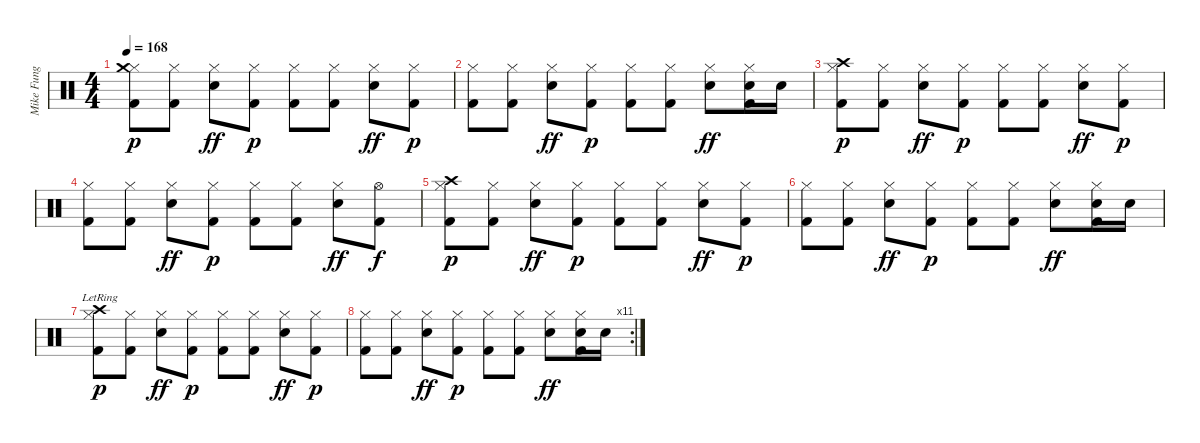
\track ("Mike Fung" "Mike Fung") {instrument percussion}
\staff {score}
\articulation defaults
\ts (4 4)
\tempo 168
\clef neutral
\ks c
("Hi-Hat (closed)" "Kick (hit) 2" "Crash medium (hit)").8{dy p} ("Hi-Hat (closed)" "Kick (hit) 2").8 ("Hi-Hat (closed)" "Snare (hit) 2").8{dy ff} ("Hi-Hat (closed)" "Kick (hit) 2").8{dy p} ("Hi-Hat (closed)" "Kick (hit) 2").8 ("Hi-Hat (closed)" "Kick (hit) 2").8 ("Hi-Hat (closed)" "Snare (hit) 2").8{dy ff} ("Hi-Hat (closed)" "Kick (hit) 2").8{dy p} |
("Hi-Hat (closed)" "Kick (hit) 2").8 ("Hi-Hat (closed)" "Kick (hit) 2").8 ("Hi-Hat (closed)" "Snare (hit) 2").8{dy ff} ("Hi-Hat (closed)" "Kick (hit) 2").8{dy p} ("Hi-Hat (closed)" "Kick (hit) 2").8 ("Hi-Hat (closed)" "Kick (hit) 2").8 ("Hi-Hat (closed)" "Snare (hit) 2").8{dy ff} ("Hi-Hat (closed)" "Snare (hit) 2" "Kick (hit) 2").16 "Snare (hit) 2".16 |
("Hi-Hat (closed)" "Kick (hit) 2" "Crash high (hit)").8{dy p} ("Hi-Hat (closed)" "Kick (hit) 2").8 ("Hi-Hat (closed)" "Snare (hit) 2").8{dy ff} ("Hi-Hat (closed)" "Kick (hit) 2").8{dy p} ("Hi-Hat (closed)" "Kick (hit) 2").8 ("Hi-Hat (closed)" "Kick (hit) 2").8 ("Hi-Hat (closed)" "Snare (hit) 2").8{dy ff} ("Hi-Hat (closed)" "Kick (hit) 2").8{dy p} |
("Hi-Hat (closed)" "Kick (hit) 2").8 ("Hi-Hat (closed)" "Kick (hit) 2").8 ("Hi-Hat (closed)" "Snare (hit) 2").8{dy ff} ("Hi-Hat (closed)" "Kick (hit) 2").8{dy p} ("Hi-Hat (closed)" "Kick (hit) 2").8 ("Hi-Hat (closed)" "Kick (hit) 2").8 ("Hi-Hat (closed)" "Snare (hit) 2").8{dy ff} ("Hi-Hat (open)" "Kick (hit) 2").8{dy f} |
("Hi-Hat (closed)" "Kick (hit) 2" "Crash high (hit)").8{dy p} ("Hi-Hat (closed)" "Kick (hit) 2").8 ("Hi-Hat (closed)" "Snare (hit) 2").8{dy ff} ("Hi-Hat (closed)" "Kick (hit) 2").8{dy p} ("Hi-Hat (closed)" "Kick (hit) 2").8 ("Hi-Hat (closed)" "Kick (hit) 2").8 ("Hi-Hat (closed)" "Snare (hit) 2").8{dy ff} ("Hi-Hat (closed)" "Kick (hit) 2").8{dy p} |
("Hi-Hat (closed)" "Kick (hit) 2").8 ("Hi-Hat (closed)" "Kick (hit) 2").8 ("Hi-Hat (closed)" "Snare (hit) 2").8{dy ff} ("Hi-Hat (closed)" "Kick (hit) 2").8{dy p} ("Hi-Hat (closed)" "Kick (hit) 2").8 ("Hi-Hat (closed)" "Kick (hit) 2").8 ("Hi-Hat (closed)" "Snare (hit) 2").8{dy ff} ("Hi-Hat (closed)" "Snare (hit) 2" "Kick (hit) 2").16 "Snare (hit) 2".16 |
("Hi-Hat (closed)" "Kick (hit) 2" "Crash high (hit)"{lr}).8{dy p} ("Hi-Hat (closed)" "Kick (hit) 2").8 ("Hi-Hat (closed)" "Snare (hit) 2").8{dy ff} ("Hi-Hat (closed)" "Kick (hit) 2").8{dy p} ("Hi-Hat (closed)" "Kick (hit) 2").8 ("Hi-Hat (closed)" "Kick (hit) 2").8 ("Hi-Hat (closed)" "Snare (hit) 2").8{dy ff} ("Hi-Hat (closed)" "Kick (hit) 2").8{dy p} |
\rc 11
("Hi-Hat (closed)" "Kick (hit) 2").8 ("Hi-Hat (closed)" "Kick (hit) 2").8 ("Hi-Hat (closed)" "Snare (hit) 2").8{dy ff} ("Hi-Hat (closed)" "Kick (hit) 2").8{dy p} ("Hi-Hat (closed)" "Kick (hit) 2").8 ("Hi-Hat (closed)" "Kick (hit) 2").8 ("Hi-Hat (closed)" "Snare (hit) 2").8{dy ff} ("Hi-Hat (closed)" "Snare (hit) 2" "Kick (hit) 2").16 "Snare (hit) 2".16
